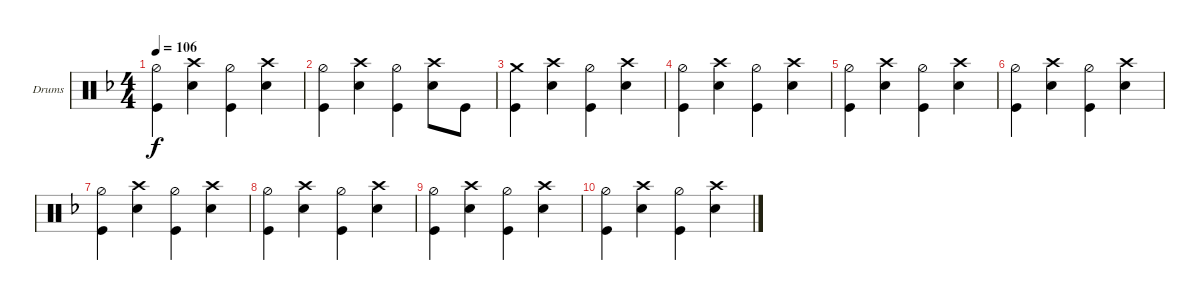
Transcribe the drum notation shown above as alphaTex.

\defaultSystemsLayout 4
\bracketExtendMode groupsimilarinstruments
\firstSystemTrackNameOrientation horizontal
\otherSystemsTrackNameOrientation horizontal
\track ("Simon Wright" "Drums") {instrument percussion}
\staff {score}
\articulation defaults
\ts (4 4)
\tempo 106
\clef neutral
\ks dminor
("Kick (hit)" "Hi-Hat (half)").4{dy f} ("Snare (hit) 2" "Crash high (hit)").4 ("Kick (hit)" "Hi-Hat (half)").4 ("Snare (hit) 2" "Crash high (hit)").4 |
("Kick (hit)" "Hi-Hat (half)").4 ("Snare (hit) 2" "Crash high (hit)").4 ("Kick (hit)" "Hi-Hat (half)").4 ("Snare (hit) 2" "Crash high (hit)").8 "Kick (hit)".8 |
("Kick (hit)" "Crash medium (hit)").4 ("Snare (hit) 2" "Crash high (hit)").4 ("Kick (hit)" "Hi-Hat (half)").4 ("Snare (hit) 2" "Crash high (hit)").4 |
("Kick (hit)" "Hi-Hat (half)").4 ("Snare (hit) 2" "Crash high (hit)").4 ("Kick (hit)" "Hi-Hat (half)").4 ("Snare (hit) 2" "Crash high (hit)").4 |
("Kick (hit)" "Hi-Hat (half)").4 ("Snare (hit) 2" "Crash high (hit)").4 ("Kick (hit)" "Hi-Hat (half)").4 ("Snare (hit) 2" "Crash high (hit)").4 |
("Kick (hit)" "Hi-Hat (half)").4 ("Snare (hit) 2" "Crash high (hit)").4 ("Kick (hit)" "Hi-Hat (half)").4 ("Snare (hit) 2" "Crash high (hit)").4 |
("Kick (hit)" "Hi-Hat (half)").4 ("Snare (hit) 2" "Crash high (hit)").4 ("Kick (hit)" "Hi-Hat (half)").4 ("Snare (hit) 2" "Crash high (hit)").4 |
("Kick (hit)" "Hi-Hat (half)").4 ("Snare (hit) 2" "Crash high (hit)").4 ("Kick (hit)" "Hi-Hat (half)").4 ("Snare (hit) 2" "Crash high (hit)").4 |
("Kick (hit)" "Hi-Hat (half)").4 ("Snare (hit) 2" "Crash high (hit)").4 ("Kick (hit)" "Hi-Hat (half)").4 ("Snare (hit) 2" "Crash high (hit)").4 |
("Kick (hit)" "Hi-Hat (half)").4 ("Snare (hit) 2" "Crash high (hit)").4 ("Kick (hit)" "Hi-Hat (half)").4 ("Snare (hit) 2" "Crash high (hit)").4
